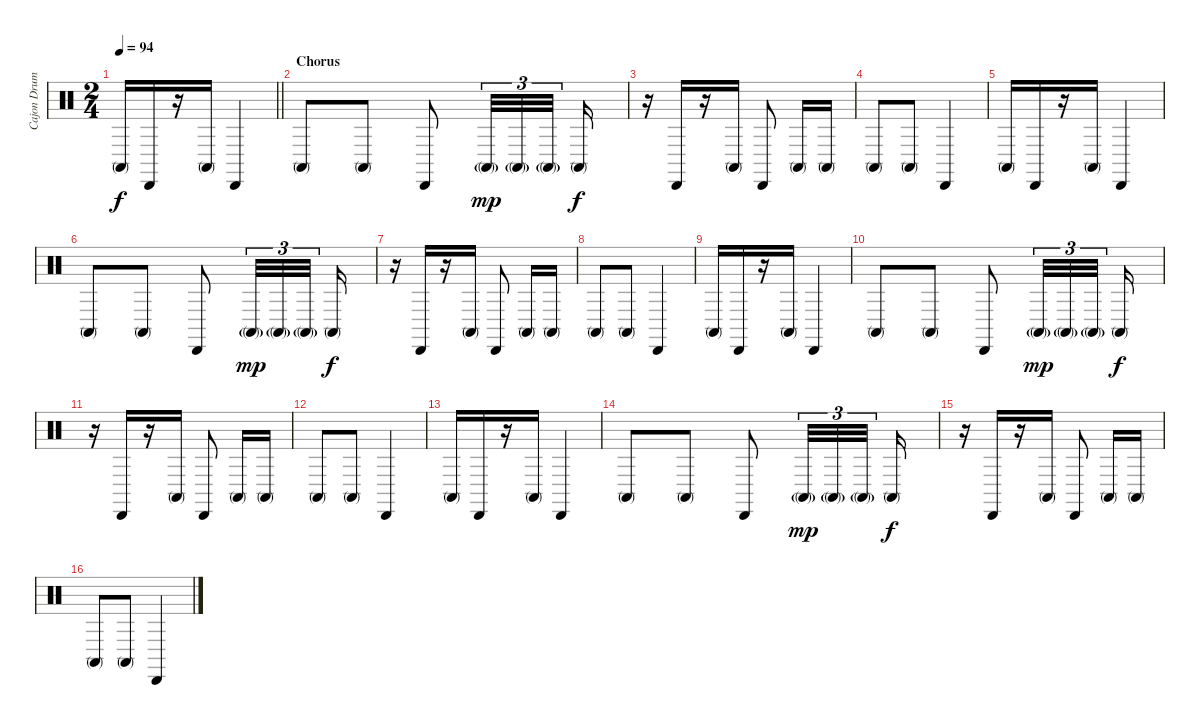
\track ("Cajon Drum" "Cajon Drum") {instrument percussion}
\staff {score}
\articulation defaults
\ts (2 4)
\tempo 94
\clef neutral
\barLineRight lightlight
\ks c "Conga high (mute)".16{dy f} "Cabasa (hit)".16
r.16 "Conga high (mute)".16 "Cabasa (hit)".4 |
\section ("" "Chorus")
"Conga high (mute)".8 "Conga high (mute)".8 "Cabasa (hit)".8{beam split} "Conga high (mute)"{g}.32{tu (3 2) dy mp} "Conga high (mute)"{g}.32{tu (3 2)} "Conga high (mute)"{g}.32{tu (3 2) beam split} "Conga high (mute)".16{dy f} |
r.16 "Cabasa (hit)".16 r.16 "Conga high (mute)".16 "Cabasa (hit)".8{beam split} "Conga high (mute)".16 "Conga high (mute)".16 |
"Conga high (mute)".8 "Conga high (mute)".8 "Cabasa (hit)".4 |
"Conga high (mute)".16 "Cabasa (hit)".16 r.16 "Conga high (mute)".16 "Cabasa (hit)".4 |
"Conga high (mute)".8 "Conga high (mute)".8 "Cabasa (hit)".8{beam split} "Conga high (mute)"{g}.32{tu (3 2) dy mp} "Conga high (mute)"{g}.32{tu (3 2)} "Conga high (mute)"{g}.32{tu (3 2) beam split} "Conga high (mute)".16{dy f} |
r.16 "Cabasa (hit)".16 r.16 "Conga high (mute)".16 "Cabasa (hit)".8{beam split} "Conga high (mute)".16 "Conga high (mute)".16 |
"Conga high (mute)".8 "Conga high (mute)".8 "Cabasa (hit)".4 |
"Conga high (mute)".16 "Cabasa (hit)".16 r.16 "Conga high (mute)".16 "Cabasa (hit)".4 |
"Conga high (mute)".8 "Conga high (mute)".8 "Cabasa (hit)".8{beam split} "Conga high (mute)"{g}.32{tu (3 2) dy mp} "Conga high (mute)"{g}.32{tu (3 2)} "Conga high (mute)"{g}.32{tu (3 2) beam split} "Conga high (mute)".16{dy f} |
r.16 "Cabasa (hit)".16 r.16 "Conga high (mute)".16 "Cabasa (hit)".8{beam split} "Conga high (mute)".16 "Conga high (mute)".16 |
"Conga high (mute)".8 "Conga high (mute)".8 "Cabasa (hit)".4 |
"Conga high (mute)".16 "Cabasa (hit)".16 r.16 "Conga high (mute)".16 "Cabasa (hit)".4 |
"Conga high (mute)".8 "Conga high (mute)".8 "Cabasa (hit)".8{beam split} "Conga high (mute)"{g}.32{tu (3 2) dy mp} "Conga high (mute)"{g}.32{tu (3 2)} "Conga high (mute)"{g}.32{tu (3 2) beam split} "Conga high (mute)".16{dy f} |
r.16 "Cabasa (hit)".16 r.16 "Conga high (mute)".16 "Cabasa (hit)".8{beam split} "Conga high (mute)".16 "Conga high (mute)".16 |
"Conga high (mute)".8 "Conga high (mute)".8 "Cabasa (hit)".4
